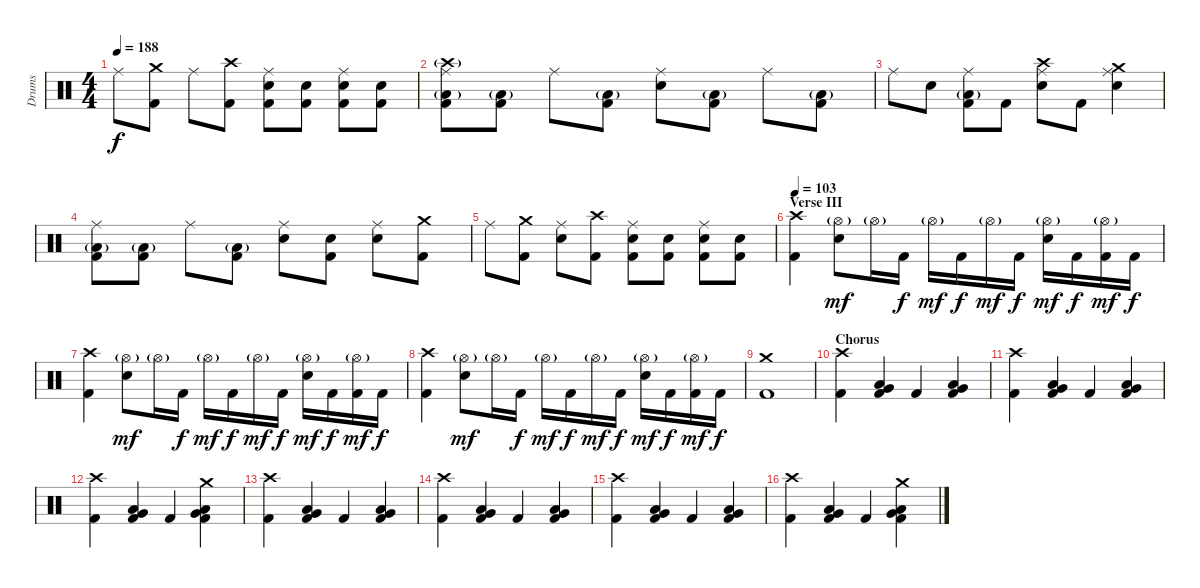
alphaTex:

\track ("Drums" "Drums") {instrument percussion}
\staff {score}
\articulation defaults
\ts (4 4)
\tempo 188
\clef neutral
\ks c "Ride (middle)".8{dy f}
("Crash medium (hit)" "Kick (hit) 2").8 "Ride (middle)".8 ("Crash high (hit)" "Kick (hit) 2").8 ("Ride (middle)" "Snare (hit) 2" "Kick (hit) 2").8 ("Snare (hit) 2" "Kick (hit) 2").8 ("Ride (middle)" "Snare (hit) 2" "Kick (hit) 2").8 ("Snare (hit) 2" "Kick (hit) 2").8 |
("Crash high (hit)"{g} "Ride (middle)" "Low Floor Tom (hit)"{g} "Kick (hit) 2").8 ("Low Floor Tom (hit)"{g} "Kick (hit) 2").8 "Ride (middle)".8 ("Low Floor Tom (hit)"{g} "Kick (hit) 2").8 ("Ride (middle)" "Electric Snare (hit)").8 ("Low Floor Tom (hit)"{g} "Kick (hit) 2").8 "Ride (middle)".8 ("Low Floor Tom (hit)"{g} "Kick (hit) 2").8 |
"Ride (middle)".8 "Electric Snare (hit)".8 ("Ride (middle)" "Low Floor Tom (hit)"{g} "Kick (hit) 2").8 "Kick (hit) 2".8 ("Crash high (hit)" "Ride (middle)" "Electric Snare (hit)").8 "Kick (hit) 2".8 ("Crash medium (hit)" "Ride (middle)" "Electric Snare (hit)").4 |
("Ride (middle)" "Low Floor Tom (hit)"{g} "Kick (hit) 2").8 ("Low Floor Tom (hit)"{g} "Kick (hit) 2").8 "Ride (middle)".8 ("Low Floor Tom (hit)"{g} "Kick (hit) 2").8 ("Ride (middle)" "Snare (hit) 2").8 ("Snare (hit) 2" "Kick (hit) 2").8 ("Ride (middle)" "Snare (hit) 2").8 ("Crash medium (hit)" "Kick (hit) 2").8 |
"Ride (middle)".8 ("Crash medium (hit)" "Kick (hit) 2").8 ("Ride (middle)" "Electric Snare (hit)").8 ("Crash high (hit)" "Kick (hit) 2").8 ("Ride (middle)" "Snare (hit) 2" "Kick (hit) 2").8 ("Snare (hit) 2" "Kick (hit) 2").8 ("Ride (middle)" "Snare (hit) 2" "Kick (hit) 2").8 ("Snare (hit) 2" "Kick (hit) 2").8 |
\section ("" "Verse III")
\tempo 103
("Crash high (hit)" "Kick (hit) 2").4 ("Hi-Hat (open)"{g} "Snare (hit) 2").8{dy mf} "Hi-Hat (open)"{g}.16 "Kick (hit) 2".16{dy f} "Hi-Hat (open)"{g}.16{dy mf} "Kick (hit) 2".16{dy f} "Hi-Hat (open)"{g}.16{dy mf} "Kick (hit) 2".16{dy f} ("Hi-Hat (open)"{g} "Snare (hit) 2").16{dy mf} "Kick (hit) 2".16{dy f} ("Hi-Hat (open)"{g} "Kick (hit) 2").16{dy mf} "Kick (hit) 2".16{dy f} |
("Crash high (hit)" "Kick (hit) 2").4 ("Hi-Hat (open)"{g} "Snare (hit) 2").8{dy mf} "Hi-Hat (open)"{g}.16 "Kick (hit) 2".16{dy f} "Hi-Hat (open)"{g}.16{dy mf} "Kick (hit) 2".16{dy f} "Hi-Hat (open)"{g}.16{dy mf} "Kick (hit) 2".16{dy f} ("Hi-Hat (open)"{g} "Snare (hit) 2").16{dy mf} "Kick (hit) 2".16{dy f} ("Hi-Hat (open)"{g} "Kick (hit) 2").16{dy mf} "Kick (hit) 2".16{dy f} |
("Crash high (hit)" "Kick (hit) 2").4 ("Hi-Hat (open)"{g} "Snare (hit) 2").8{dy mf} "Hi-Hat (open)"{g}.16 "Kick (hit) 2".16{dy f} "Hi-Hat (open)"{g}.16{dy mf} "Kick (hit) 2".16{dy f} "Hi-Hat (open)"{g}.16{dy mf} "Kick (hit) 2".16{dy f} ("Hi-Hat (open)"{g} "Snare (hit) 2").16{dy mf} "Kick (hit) 2".16{dy f} ("Hi-Hat (open)"{g} "Kick (hit) 2").16{dy mf} "Kick (hit) 2".16{dy f} |
("Crash medium (hit)" "Kick (hit) 2").1 |
\section ("" "Chorus")
("Crash high (hit)" "Kick (hit) 2").4 ("Low Floor Tom (hit)" "Very Low Tom (hit)" "Kick (hit) 2").4 "Kick (hit) 2".4 ("Low Floor Tom (hit)" "Very Low Tom (hit)" "Kick (hit) 2").4 |
("Crash high (hit)" "Kick (hit) 2").4 ("Low Floor Tom (hit)" "Very Low Tom (hit)" "Kick (hit) 2").4 "Kick (hit) 2".4 ("Low Floor Tom (hit)" "Very Low Tom (hit)" "Kick (hit) 2").4 |
("Crash high (hit)" "Kick (hit) 2").4 ("Low Floor Tom (hit)" "Very Low Tom (hit)" "Kick (hit) 2").4 "Kick (hit) 2".4 ("Crash medium (hit)" "Low Floor Tom (hit)" "Very Low Tom (hit)" "Kick (hit) 2").4 |
("Crash high (hit)" "Kick (hit) 2").4 ("Low Floor Tom (hit)" "Very Low Tom (hit)" "Kick (hit) 2").4 "Kick (hit) 2".4 ("Low Floor Tom (hit)" "Very Low Tom (hit)" "Kick (hit) 2").4 |
("Crash high (hit)" "Kick (hit) 2").4 ("Low Floor Tom (hit)" "Very Low Tom (hit)" "Kick (hit) 2").4 "Kick (hit) 2".4 ("Low Floor Tom (hit)" "Very Low Tom (hit)" "Kick (hit) 2").4 |
("Crash high (hit)" "Kick (hit) 2").4 ("Low Floor Tom (hit)" "Very Low Tom (hit)" "Kick (hit) 2").4 "Kick (hit) 2".4 ("Low Floor Tom (hit)" "Very Low Tom (hit)" "Kick (hit) 2").4 |
("Crash high (hit)" "Kick (hit) 2").4 ("Low Floor Tom (hit)" "Very Low Tom (hit)" "Kick (hit) 2").4 "Kick (hit) 2".4 ("Crash medium (hit)" "Low Floor Tom (hit)" "Very Low Tom (hit)" "Kick (hit) 2").4
